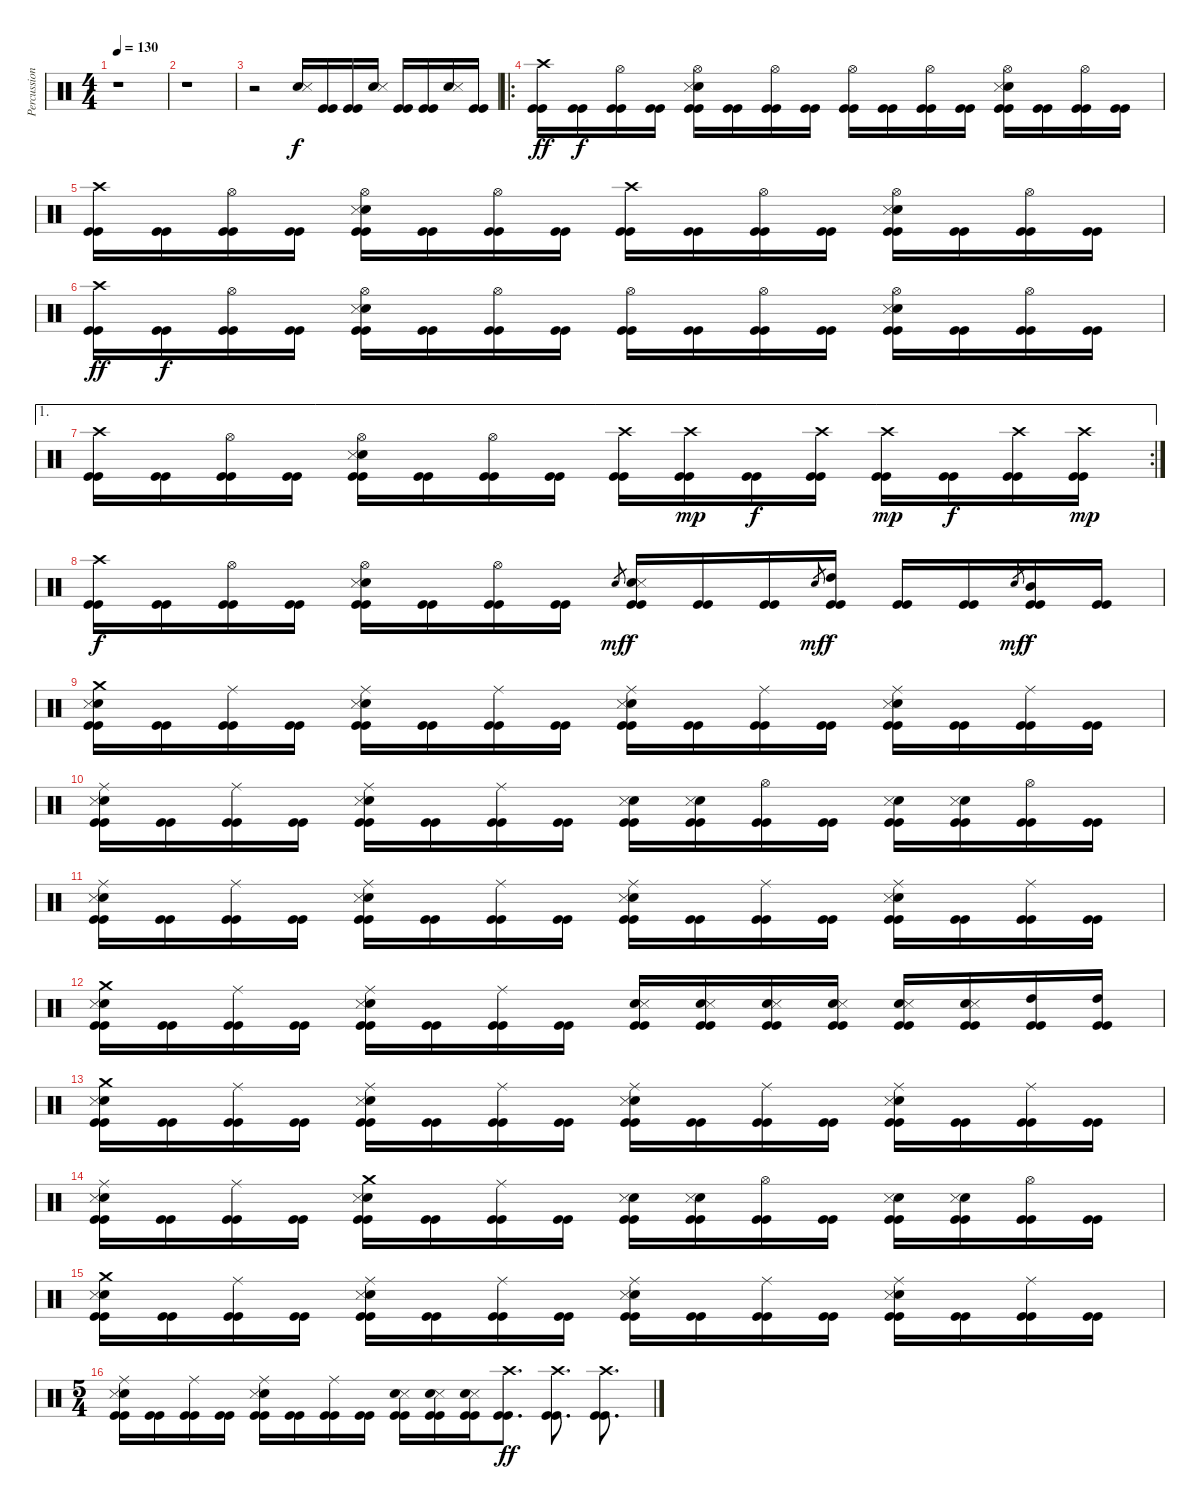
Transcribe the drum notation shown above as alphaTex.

\track ("Percussion" "Percussion") {instrument percussion}
\staff {score}
\articulation defaults
\ts (4 4)
\tempo 130
\clef neutral
\ks c
r.1{dy ff} |
r.1 |
r.2 ("Snare (hit) 2" "Snare (side stick) 3").16{dy f} ("Kick (hit)" "Kick (hit)").16 ("Kick (hit)" "Kick (hit)").16 ("Snare (hit) 2" "Snare (side stick) 3").16 ("Kick (hit)" "Kick (hit)").16 ("Kick (hit)" "Kick (hit)").16 ("Snare (hit) 2" "Snare (side stick) 3").16 ("Kick (hit)" "Kick (hit)").16 |
\ro
("Crash high (hit)" "Kick (hit)" "Kick (hit)").16{dy ff} ("Kick (hit)" "Kick (hit)").16{dy f} ("Hi-Hat (open)" "Kick (hit)" "Kick (hit)").16 ("Kick (hit)" "Kick (hit)").16 ("Snare (hit) 2" "Snare (side stick) 3" "Hi-Hat (open)" "Kick (hit)" "Kick (hit)").16 ("Kick (hit)" "Kick (hit)").16 ("Hi-Hat (open)" "Kick (hit)" "Kick (hit)").16 ("Kick (hit)" "Kick (hit)").16 ("Hi-Hat (open)" "Kick (hit)" "Kick (hit)").16 ("Kick (hit)" "Kick (hit)").16 ("Hi-Hat (open)" "Kick (hit)" "Kick (hit)").16 ("Kick (hit)" "Kick (hit)").16 ("Snare (hit) 2" "Snare (side stick) 3" "Hi-Hat (open)" "Kick (hit)" "Kick (hit)").16 ("Kick (hit)" "Kick (hit)").16 ("Hi-Hat (open)" "Kick (hit)" "Kick (hit)").16 ("Kick (hit)" "Kick (hit)").16 |
("Crash high (hit)" "Kick (hit)" "Kick (hit)").16 ("Kick (hit)" "Kick (hit)").16 ("Hi-Hat (open)" "Kick (hit)" "Kick (hit)").16 ("Kick (hit)" "Kick (hit)").16 ("Snare (hit) 2" "Snare (side stick) 3" "Hi-Hat (open)" "Kick (hit)" "Kick (hit)").16 ("Kick (hit)" "Kick (hit)").16 ("Hi-Hat (open)" "Kick (hit)" "Kick (hit)").16 ("Kick (hit)" "Kick (hit)").16 ("Crash high (hit)" "Kick (hit)" "Kick (hit)").16 ("Kick (hit)" "Kick (hit)").16 ("Hi-Hat (open)" "Kick (hit)" "Kick (hit)").16 ("Kick (hit)" "Kick (hit)").16 ("Snare (hit) 2" "Snare (side stick) 3" "Hi-Hat (open)" "Kick (hit)" "Kick (hit)").16 ("Kick (hit)" "Kick (hit)").16 ("Hi-Hat (open)" "Kick (hit)" "Kick (hit)").16 ("Kick (hit)" "Kick (hit)").16 |
("Crash high (hit)" "Kick (hit)" "Kick (hit)").16{dy ff} ("Kick (hit)" "Kick (hit)").16{dy f} ("Hi-Hat (open)" "Kick (hit)" "Kick (hit)").16 ("Kick (hit)" "Kick (hit)").16 ("Snare (hit) 2" "Snare (side stick) 3" "Hi-Hat (open)" "Kick (hit)" "Kick (hit)").16 ("Kick (hit)" "Kick (hit)").16 ("Hi-Hat (open)" "Kick (hit)" "Kick (hit)").16 ("Kick (hit)" "Kick (hit)").16 ("Hi-Hat (open)" "Kick (hit)" "Kick (hit)").16 ("Kick (hit)" "Kick (hit)").16 ("Hi-Hat (open)" "Kick (hit)" "Kick (hit)").16 ("Kick (hit)" "Kick (hit)").16 ("Snare (hit) 2" "Snare (side stick) 3" "Hi-Hat (open)" "Kick (hit)" "Kick (hit)").16 ("Kick (hit)" "Kick (hit)").16 ("Hi-Hat (open)" "Kick (hit)" "Kick (hit)").16 ("Kick (hit)" "Kick (hit)").16 |
\ae 1
\rc 2
("Crash high (hit)" "Kick (hit)" "Kick (hit)").16 ("Kick (hit)" "Kick (hit)").16 ("Hi-Hat (open)" "Kick (hit)" "Kick (hit)").16 ("Kick (hit)" "Kick (hit)").16 ("Snare (hit) 2" "Snare (side stick) 3" "Hi-Hat (open)" "Kick (hit)" "Kick (hit)").16 ("Kick (hit)" "Kick (hit)").16 ("Hi-Hat (open)" "Kick (hit)" "Kick (hit)").16 ("Kick (hit)" "Kick (hit)").16 ("Crash high (hit)" "Kick (hit)" "Kick (hit)").16 ("Crash high (hit)" "Kick (hit)" "Kick (hit)").16{dy mp} ("Kick (hit)" "Kick (hit)").16{dy f} ("Crash high (hit)" "Kick (hit)" "Kick (hit)").16 ("Crash high (hit)" "Kick (hit)" "Kick (hit)").16{dy mp} ("Kick (hit)" "Kick (hit)").16{dy f} ("Crash high (hit)" "Kick (hit)" "Kick (hit)").16 ("Crash high (hit)" "Kick (hit)" "Kick (hit)").16{dy mp} |
("Crash high (hit)" "Kick (hit)" "Kick (hit)").16{dy f} ("Kick (hit)" "Kick (hit)").16 ("Hi-Hat (open)" "Kick (hit)" "Kick (hit)").16 ("Kick (hit)" "Kick (hit)").16 ("Snare (hit) 2" "Snare (side stick) 3" "Hi-Hat (open)" "Kick (hit)" "Kick (hit)").16 ("Kick (hit)" "Kick (hit)").16 ("Hi-Hat (open)" "Kick (hit)" "Kick (hit)").16 ("Kick (hit)" "Kick (hit)").16 "Snare (hit)".8{gr dy mf} ("Snare (hit) 2" "Snare (side stick) 3" "Kick (hit)" "Kick (hit)").16{dy f} ("Kick (hit)" "Kick (hit)").16 ("Kick (hit)" "Kick (hit)").16 "Snare (hit)".8{gr dy mf} ("High Tom (hit)" "Kick (hit)" "Kick (hit)").16{dy f} ("Kick (hit)" "Kick (hit)").16 ("Kick (hit)" "Kick (hit)").16 "Snare (hit)".8{gr dy mf} ("Mid Tom (hit)" "Kick (hit)" "Kick (hit)").16{dy f} ("Kick (hit)" "Kick (hit)").16 |
("Snare (hit) 2" "Snare (side stick) 3" "Crash medium (hit)" "Kick (hit)" "Kick (hit)").16 ("Kick (hit)" "Kick (hit)").16 ("Ride (middle)" "Kick (hit)" "Kick (hit)").16 ("Kick (hit)" "Kick (hit)").16 ("Snare (hit) 2" "Snare (side stick) 3" "Ride (middle)" "Kick (hit)" "Kick (hit)").16 ("Kick (hit)" "Kick (hit)").16 ("Ride (middle)" "Kick (hit)" "Kick (hit)").16 ("Kick (hit)" "Kick (hit)").16 ("Snare (hit) 2" "Snare (side stick) 3" "Ride (middle)" "Kick (hit)" "Kick (hit)").16 ("Kick (hit)" "Kick (hit)").16 ("Ride (middle)" "Kick (hit)" "Kick (hit)").16 ("Kick (hit)" "Kick (hit)").16 ("Snare (hit) 2" "Snare (side stick) 3" "Ride (middle)" "Kick (hit)" "Kick (hit)").16 ("Kick (hit)" "Kick (hit)").16 ("Ride (middle)" "Kick (hit)" "Kick (hit)").16 ("Kick (hit)" "Kick (hit)").16 |
("Snare (hit) 2" "Snare (side stick) 3" "Ride (middle)" "Kick (hit)" "Kick (hit)").16 ("Kick (hit)" "Kick (hit)").16 ("Ride (middle)" "Kick (hit)" "Kick (hit)").16 ("Kick (hit)" "Kick (hit)").16 ("Snare (hit) 2" "Snare (side stick) 3" "Ride (middle)" "Kick (hit)" "Kick (hit)").16 ("Kick (hit)" "Kick (hit)").16 ("Ride (middle)" "Kick (hit)" "Kick (hit)").16 ("Kick (hit)" "Kick (hit)").16 ("Snare (hit) 2" "Snare (side stick) 3" "Kick (hit)" "Kick (hit)").16 ("Snare (hit) 2" "Snare (side stick) 3" "Kick (hit)" "Kick (hit)").16 ("Hi-Hat (open)" "Kick (hit)" "Kick (hit)").16 ("Kick (hit)" "Kick (hit)").16 ("Snare (hit) 2" "Snare (side stick) 3" "Kick (hit)" "Kick (hit)").16 ("Snare (hit) 2" "Snare (side stick) 3" "Kick (hit)" "Kick (hit)").16 ("Hi-Hat (open)" "Kick (hit)" "Kick (hit)").16 ("Kick (hit)" "Kick (hit)").16 |
("Snare (hit) 2" "Snare (side stick) 3" "Ride (middle)" "Kick (hit)" "Kick (hit)").16 ("Kick (hit)" "Kick (hit)").16 ("Ride (middle)" "Kick (hit)" "Kick (hit)").16 ("Kick (hit)" "Kick (hit)").16 ("Snare (hit) 2" "Snare (side stick) 3" "Ride (middle)" "Kick (hit)" "Kick (hit)").16 ("Kick (hit)" "Kick (hit)").16 ("Ride (middle)" "Kick (hit)" "Kick (hit)").16 ("Kick (hit)" "Kick (hit)").16 ("Snare (hit) 2" "Snare (side stick) 3" "Ride (middle)" "Kick (hit)" "Kick (hit)").16 ("Kick (hit)" "Kick (hit)").16 ("Ride (middle)" "Kick (hit)" "Kick (hit)").16 ("Kick (hit)" "Kick (hit)").16 ("Snare (hit) 2" "Snare (side stick) 3" "Ride (middle)" "Kick (hit)" "Kick (hit)").16 ("Kick (hit)" "Kick (hit)").16 ("Ride (middle)" "Kick (hit)" "Kick (hit)").16 ("Kick (hit)" "Kick (hit)").16 |
("Kick (hit)" "Crash medium (hit)" "Snare (hit) 2" "Snare (side stick) 3" "Kick (hit)").16 ("Kick (hit)" "Kick (hit)").16 ("Ride (middle)" "Kick (hit)" "Kick (hit)").16 ("Kick (hit)" "Kick (hit)").16 ("Kick (hit)" "Ride (middle)" "Snare (hit) 2" "Snare (side stick) 3" "Kick (hit)").16 ("Kick (hit)" "Kick (hit)").16 ("Ride (middle)" "Kick (hit)" "Kick (hit)").16 ("Kick (hit)" "Kick (hit)").16 ("Snare (hit) 2" "Snare (side stick) 3" "Kick (hit)" "Kick (hit)").16 ("Snare (hit) 2" "Snare (side stick) 3" "Kick (hit)" "Kick (hit)").16 ("Snare (hit) 2" "Snare (side stick) 3" "Kick (hit)" "Kick (hit)").16 ("Snare (hit) 2" "Snare (side stick) 3" "Kick (hit)" "Kick (hit)").16 ("Snare (hit) 2" "Snare (side stick) 3" "Kick (hit)" "Kick (hit)").16 ("Snare (hit) 2" "Snare (side stick) 3" "Kick (hit)" "Kick (hit)").16 ("High Tom (hit)" "Kick (hit)" "Kick (hit)").16 ("High Tom (hit)" "Kick (hit)" "Kick (hit)").16 |
("Snare (hit) 2" "Snare (side stick) 3" "Crash medium (hit)" "Kick (hit)" "Kick (hit)").16 ("Kick (hit)" "Kick (hit)").16 ("Ride (middle)" "Kick (hit)" "Kick (hit)").16 ("Kick (hit)" "Kick (hit)").16 ("Snare (hit) 2" "Snare (side stick) 3" "Ride (middle)" "Kick (hit)" "Kick (hit)").16 ("Kick (hit)" "Kick (hit)").16 ("Ride (middle)" "Kick (hit)" "Kick (hit)").16 ("Kick (hit)" "Kick (hit)").16 ("Snare (hit) 2" "Snare (side stick) 3" "Ride (middle)" "Kick (hit)" "Kick (hit)").16 ("Kick (hit)" "Kick (hit)").16 ("Ride (middle)" "Kick (hit)" "Kick (hit)").16 ("Kick (hit)" "Kick (hit)").16 ("Snare (hit) 2" "Snare (side stick) 3" "Ride (middle)" "Kick (hit)" "Kick (hit)").16 ("Kick (hit)" "Kick (hit)").16 ("Ride (middle)" "Kick (hit)" "Kick (hit)").16 ("Kick (hit)" "Kick (hit)").16 |
("Snare (hit) 2" "Snare (side stick) 3" "Ride (middle)" "Kick (hit)" "Kick (hit)").16 ("Kick (hit)" "Kick (hit)").16 ("Ride (middle)" "Kick (hit)" "Kick (hit)").16 ("Kick (hit)" "Kick (hit)").16 ("Snare (hit) 2" "Snare (side stick) 3" "Crash medium (hit)" "Kick (hit)" "Kick (hit)").16 ("Kick (hit)" "Kick (hit)").16 ("Ride (middle)" "Kick (hit)" "Kick (hit)").16 ("Kick (hit)" "Kick (hit)").16 ("Snare (hit) 2" "Snare (side stick) 3" "Kick (hit)" "Kick (hit)").16 ("Snare (hit) 2" "Snare (side stick) 3" "Kick (hit)" "Kick (hit)").16 ("Hi-Hat (open)" "Kick (hit)" "Kick (hit)").16 ("Kick (hit)" "Kick (hit)").16 ("Snare (hit) 2" "Snare (side stick) 3" "Kick (hit)" "Kick (hit)").16 ("Snare (hit) 2" "Snare (side stick) 3" "Kick (hit)" "Kick (hit)").16 ("Hi-Hat (open)" "Kick (hit)" "Kick (hit)").16 ("Kick (hit)" "Kick (hit)").16 |
("Snare (hit) 2" "Snare (side stick) 3" "Crash medium (hit)" "Kick (hit)" "Kick (hit)").16 ("Kick (hit)" "Kick (hit)").16 ("Ride (middle)" "Kick (hit)" "Kick (hit)").16 ("Kick (hit)" "Kick (hit)").16 ("Snare (hit) 2" "Snare (side stick) 3" "Ride (middle)" "Kick (hit)" "Kick (hit)").16 ("Kick (hit)" "Kick (hit)").16 ("Ride (middle)" "Kick (hit)" "Kick (hit)").16 ("Kick (hit)" "Kick (hit)").16 ("Snare (hit) 2" "Snare (side stick) 3" "Ride (middle)" "Kick (hit)" "Kick (hit)").16 ("Kick (hit)" "Kick (hit)").16 ("Ride (middle)" "Kick (hit)" "Kick (hit)").16 ("Kick (hit)" "Kick (hit)").16 ("Snare (hit) 2" "Snare (side stick) 3" "Ride (middle)" "Kick (hit)" "Kick (hit)").16 ("Kick (hit)" "Kick (hit)").16 ("Ride (middle)" "Kick (hit)" "Kick (hit)").16 ("Kick (hit)" "Kick (hit)").16 |
\ts (5 4)
("Snare (hit) 2" "Snare (side stick) 3" "Ride (middle)" "Kick (hit)" "Kick (hit)").16 ("Kick (hit)" "Kick (hit)").16 ("Ride (middle)" "Kick (hit)" "Kick (hit)").16 ("Kick (hit)" "Kick (hit)").16 ("Snare (hit) 2" "Snare (side stick) 3" "Ride (middle)" "Kick (hit)" "Kick (hit)").16 ("Kick (hit)" "Kick (hit)").16 ("Ride (middle)" "Kick (hit)" "Kick (hit)").16 ("Kick (hit)" "Kick (hit)").16 ("Snare (side stick) 3" "Snare (hit) 2" "Kick (hit)" "Kick (hit)").16 ("Snare (side stick) 3" "Snare (hit) 2" "Kick (hit)" "Kick (hit)").16 ("Snare (side stick) 3" "Snare (hit) 2" "Kick (hit)" "Kick (hit)").16 ("Crash high (hit)" "Kick (hit)" "Kick (hit)").8{d dy ff} ("Crash high (hit)" "Kick (hit)" "Kick (hit)").8{d} ("Crash high (hit)" "Kick (hit)" "Kick (hit)").8{d}
